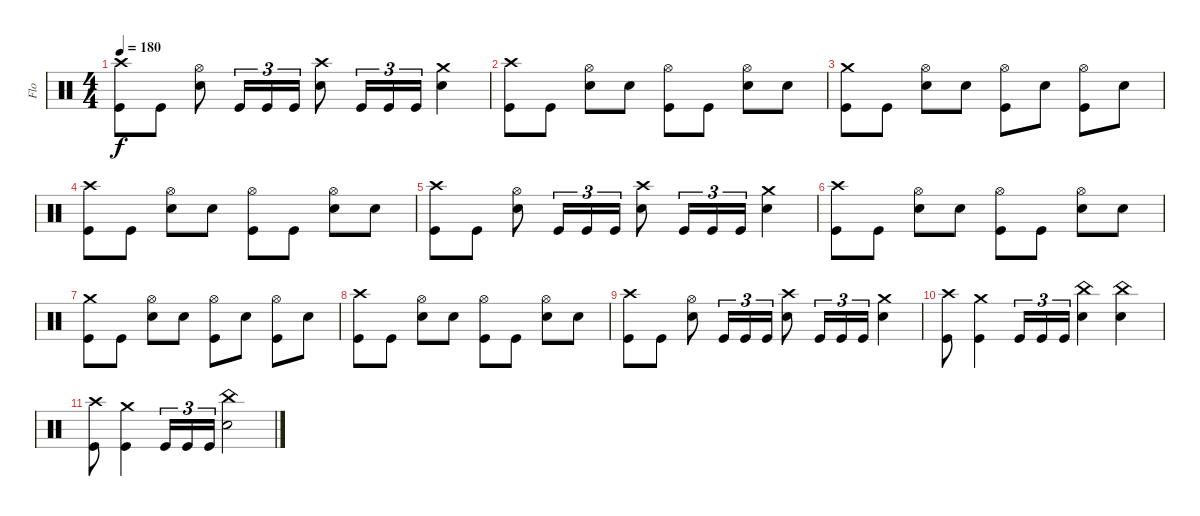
\track ("Flo" "Flo") {instrument percussion}
\staff {score}
\articulation defaults
\ts (4 4)
\tempo 180
\clef neutral
\ks c
("Crash high (hit)" "Kick (hit)").8{dy f} "Kick (hit)".8 ("Hi-Hat (open)" "Snare (hit) 2").8 "Kick (hit)".16{tu (3 2)} "Kick (hit)".16{tu (3 2)} "Kick (hit)".16{tu (3 2)} ("Crash high (hit)" "Snare (hit) 2").8 "Kick (hit)".16{tu (3 2)} "Kick (hit)".16{tu (3 2)} "Kick (hit)".16{tu (3 2)} ("Crash medium (hit)" "Snare (hit) 2").4 |
("Crash high (hit)" "Kick (hit)").8 "Kick (hit)".8 ("Hi-Hat (open)" "Snare (hit) 2").8 "Snare (hit) 2".8 ("Hi-Hat (open)" "Kick (hit)").8 "Kick (hit)".8 ("Hi-Hat (open)" "Snare (hit) 2").8 "Snare (hit) 2".8 |
("Crash medium (hit)" "Kick (hit)").8 "Kick (hit)".8 ("Hi-Hat (open)" "Snare (hit) 2").8 "Snare (hit) 2".8 ("Hi-Hat (open)" "Kick (hit)").8 "Snare (hit) 2".8 ("Hi-Hat (open)" "Kick (hit)").8 "Snare (hit) 2".8 |
("Crash high (hit)" "Kick (hit)").8 "Kick (hit)".8 ("Hi-Hat (open)" "Snare (hit) 2").8 "Snare (hit) 2".8 ("Hi-Hat (open)" "Kick (hit)").8 "Kick (hit)".8 ("Hi-Hat (open)" "Snare (hit) 2").8 "Snare (hit) 2".8 |
("Crash high (hit)" "Kick (hit)").8 "Kick (hit)".8 ("Hi-Hat (open)" "Snare (hit) 2").8 "Kick (hit)".16{tu (3 2)} "Kick (hit)".16{tu (3 2)} "Kick (hit)".16{tu (3 2)} ("Crash high (hit)" "Snare (hit) 2").8 "Kick (hit)".16{tu (3 2)} "Kick (hit)".16{tu (3 2)} "Kick (hit)".16{tu (3 2)} ("Crash medium (hit)" "Snare (hit) 2").4 |
("Crash high (hit)" "Kick (hit)").8 "Kick (hit)".8 ("Hi-Hat (open)" "Snare (hit) 2").8 "Snare (hit) 2".8 ("Hi-Hat (open)" "Kick (hit)").8 "Kick (hit)".8 ("Hi-Hat (open)" "Snare (hit) 2").8 "Snare (hit) 2".8 |
("Crash medium (hit)" "Kick (hit)").8 "Kick (hit)".8 ("Hi-Hat (open)" "Snare (hit) 2").8 "Snare (hit) 2".8 ("Hi-Hat (open)" "Kick (hit)").8 "Snare (hit) 2".8 ("Hi-Hat (open)" "Kick (hit)").8 "Snare (hit) 2".8 |
("Crash high (hit)" "Kick (hit)").8 "Kick (hit)".8 ("Hi-Hat (open)" "Snare (hit) 2").8 "Snare (hit) 2".8 ("Hi-Hat (open)" "Kick (hit)").8 "Kick (hit)".8 ("Hi-Hat (open)" "Snare (hit) 2").8 "Snare (hit) 2".8 |
("Crash high (hit)" "Kick (hit)").8 "Kick (hit)".8 ("Hi-Hat (open)" "Snare (hit) 2").8 "Kick (hit)".16{tu (3 2)} "Kick (hit)".16{tu (3 2)} "Kick (hit)".16{tu (3 2)} ("Crash high (hit)" "Snare (hit) 2").8 "Kick (hit)".16{tu (3 2)} "Kick (hit)".16{tu (3 2)} "Kick (hit)".16{tu (3 2)} ("Crash medium (hit)" "Snare (hit) 2").4 |
("Crash high (hit)" "Kick (hit)").8 ("Crash medium (hit)" "Kick (hit)").4 "Kick (hit)".16{tu (3 2)} "Kick (hit)".16{tu (3 2)} "Kick (hit)".16{tu (3 2)} ("China (hit)" "Snare (hit) 2").4 ("China (hit)" "Snare (hit) 2").4 |
("Crash high (hit)" "Kick (hit)").8 ("Crash medium (hit)" "Kick (hit)").4 "Kick (hit)".16{tu (3 2)} "Kick (hit)".16{tu (3 2)} "Kick (hit)".16{tu (3 2)} ("China (hit)" "Snare (hit) 2").2
